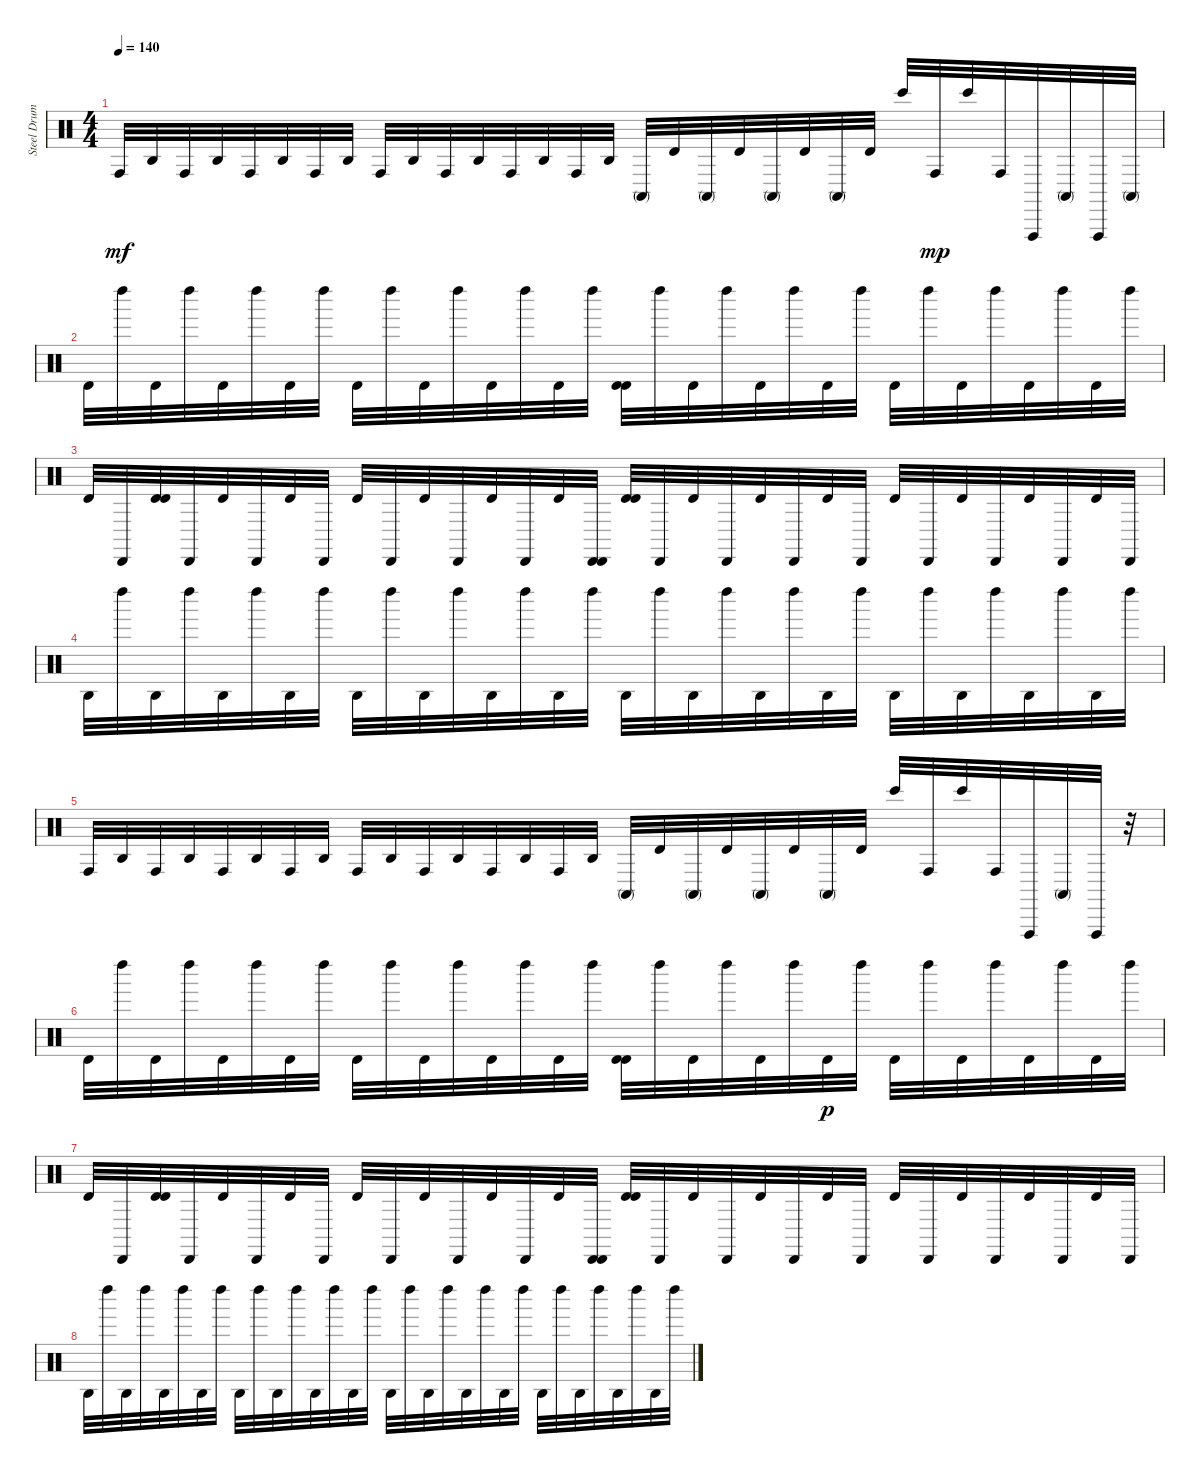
\track ("Steel Drums" "Steel Drum") {instrument percussion}
\staff {score}
\articulation defaults
\ts (4 4)
\tempo 140
\clef neutral
\ks c "Conga high (hit)".32{dy mf} "Agogo high (hit)".32 "Conga high (hit)".32 "Agogo high (hit)".32 "Conga high (hit)".32 "Agogo high (hit)".32 "Conga high (hit)".32 "Agogo high (hit)".32 "Conga high (hit)".32 "Agogo high (hit)".32 "Conga high (hit)".32 "Agogo high (hit)".32 "Conga high (hit)".32 "Agogo high (hit)".32 "Conga high (hit)".32 "Agogo high (hit)".32 "Conga high (mute)".32 "Timbale high (hit)".32 "Conga high (mute)".32 "Timbale high (hit)".32 "Conga high (mute)".32 "Timbale high (hit)".32 "Conga high (mute)".32 "Timbale high (hit)".32 "Bongo High (hit)".32 "Conga high (hit)".32{dy mp} "Bongo High (hit)".32 "Conga high (hit)".32 "Vibraslap (hit)".32 "Conga high (mute)".32 "Vibraslap (hit)".32 "Conga high (mute)".32
|
"Timbale high (hit)".32 "Left Maraca (hit)".32 "Timbale high (hit)".32 "Left Maraca (hit)".32 "Timbale high (hit)".32 "Left Maraca (hit)".32 "Timbale high (hit)".32 "Left Maraca (hit)".32 "Timbale high (hit)".32 "Left Maraca (hit)".32 "Timbale high (hit)".32 "Left Maraca (hit)".32 "Timbale high (hit)".32 "Left Maraca (hit)".32 "Timbale high (hit)".32 "Left Maraca (hit)".32 ("Timbale high (hit)" "Timbale high (hit)").32 "Left Maraca (hit)".32 "Timbale high (hit)".32 "Left Maraca (hit)".32 "Timbale high (hit)".32 "Left Maraca (hit)".32 "Timbale high (hit)".32 "Left Maraca (hit)".32 "Timbale high (hit)".32 "Left Maraca (hit)".32 "Timbale high (hit)".32 "Left Maraca (hit)".32 "Timbale high (hit)".32 "Left Maraca (hit)".32 "Timbale high (hit)".32 "Left Maraca (hit)".32 |
"Timbale high (hit)".32 "Cabasa (hit)".32 ("Timbale high (hit)" "Timbale high (hit)").32 "Cabasa (hit)".32 "Timbale high (hit)".32 "Cabasa (hit)".32 "Timbale high (hit)".32 "Cabasa (hit)".32 "Timbale high (hit)".32 "Cabasa (hit)".32 "Timbale high (hit)".32 "Cabasa (hit)".32 "Timbale high (hit)".32 "Cabasa (hit)".32 "Timbale high (hit)".32 ("Cabasa (hit)" "Cabasa (hit)").32 ("Timbale high (hit)" "Timbale high (hit)").32 "Cabasa (hit)".32 "Timbale high (hit)".32 "Cabasa (hit)".32 "Timbale high (hit)".32 "Cabasa (hit)".32 "Timbale high (hit)".32 "Cabasa (hit)".32 "Timbale high (hit)".32 "Cabasa (hit)".32 "Timbale high (hit)".32 "Cabasa (hit)".32 "Timbale high (hit)".32 "Cabasa (hit)".32 "Timbale high (hit)".32 "Cabasa (hit)".32 |
"Agogo high (hit)".32 "Left Maraca (hit)".32 "Agogo high (hit)".32 "Left Maraca (hit)".32 "Agogo high (hit)".32 "Left Maraca (hit)".32 "Agogo high (hit)".32 "Left Maraca (hit)".32 "Agogo high (hit)".32 "Left Maraca (hit)".32 "Agogo high (hit)".32 "Left Maraca (hit)".32 "Agogo high (hit)".32 "Left Maraca (hit)".32 "Agogo high (hit)".32 "Left Maraca (hit)".32 "Agogo high (hit)".32 "Left Maraca (hit)".32 "Agogo high (hit)".32 "Left Maraca (hit)".32 "Agogo high (hit)".32 "Left Maraca (hit)".32 "Agogo high (hit)".32 "Left Maraca (hit)".32 "Agogo high (hit)".32 "Left Maraca (hit)".32 "Agogo high (hit)".32 "Left Maraca (hit)".32 "Agogo high (hit)".32 "Left Maraca (hit)".32 "Agogo high (hit)".32 "Left Maraca (hit)".32 |
"Conga high (hit)".32 "Agogo high (hit)".32 "Conga high (hit)".32 "Agogo high (hit)".32 "Conga high (hit)".32 "Agogo high (hit)".32 "Conga high (hit)".32 "Agogo high (hit)".32 "Conga high (hit)".32 "Agogo high (hit)".32 "Conga high (hit)".32 "Agogo high (hit)".32 "Conga high (hit)".32 "Agogo high (hit)".32 "Conga high (hit)".32 "Agogo high (hit)".32 "Conga high (mute)".32 "Timbale high (hit)".32 "Conga high (mute)".32 "Timbale high (hit)".32 "Conga high (mute)".32 "Timbale high (hit)".32 "Conga high (mute)".32 "Timbale high (hit)".32 "Bongo High (hit)".32 "Conga high (hit)".32 "Bongo High (hit)".32 "Conga high (hit)".32 "Vibraslap (hit)".32 "Conga high (mute)".32 "Vibraslap (hit)".32 r.32 |
"Timbale high (hit)".32 "Left Maraca (hit)".32 "Timbale high (hit)".32 "Left Maraca (hit)".32 "Timbale high (hit)".32 "Left Maraca (hit)".32 "Timbale high (hit)".32 "Left Maraca (hit)".32 "Timbale high (hit)".32 "Left Maraca (hit)".32 "Timbale high (hit)".32 "Left Maraca (hit)".32 "Timbale high (hit)".32 "Left Maraca (hit)".32 "Timbale high (hit)".32 "Left Maraca (hit)".32 ("Timbale high (hit)" "Timbale high (hit)").32 "Left Maraca (hit)".32 "Timbale high (hit)".32 "Left Maraca (hit)".32 "Timbale high (hit)".32 "Left Maraca (hit)".32 "Timbale high (hit)".32{dy p} "Left Maraca (hit)".32 "Timbale high (hit)".32 "Left Maraca (hit)".32 "Timbale high (hit)".32 "Left Maraca (hit)".32 "Timbale high (hit)".32 "Left Maraca (hit)".32 "Timbale high (hit)".32 "Left Maraca (hit)".32 |
"Timbale high (hit)".32 "Cabasa (hit)".32 ("Timbale high (hit)" "Timbale high (hit)").32 "Cabasa (hit)".32 "Timbale high (hit)".32 "Cabasa (hit)".32 "Timbale high (hit)".32 "Cabasa (hit)".32 "Timbale high (hit)".32 "Cabasa (hit)".32 "Timbale high (hit)".32 "Cabasa (hit)".32 "Timbale high (hit)".32 "Cabasa (hit)".32 "Timbale high (hit)".32 ("Cabasa (hit)" "Cabasa (hit)").32 ("Timbale high (hit)" "Timbale high (hit)").32 "Cabasa (hit)".32 "Timbale high (hit)".32 "Cabasa (hit)".32 "Timbale high (hit)".32 "Cabasa (hit)".32 "Timbale high (hit)".32 "Cabasa (hit)".32 "Timbale high (hit)".32 "Cabasa (hit)".32 "Timbale high (hit)".32 "Cabasa (hit)".32 "Timbale high (hit)".32 "Cabasa (hit)".32 "Timbale high (hit)".32 "Cabasa (hit)".32 |
"Agogo high (hit)".32 "Left Maraca (hit)".32 "Agogo high (hit)".32 "Left Maraca (hit)".32 "Agogo high (hit)".32 "Left Maraca (hit)".32 "Agogo high (hit)".32 "Left Maraca (hit)".32 "Agogo high (hit)".32 "Left Maraca (hit)".32 "Agogo high (hit)".32 "Left Maraca (hit)".32 "Agogo high (hit)".32 "Left Maraca (hit)".32 "Agogo high (hit)".32 "Left Maraca (hit)".32 "Agogo high (hit)".32 "Left Maraca (hit)".32 "Agogo high (hit)".32 "Left Maraca (hit)".32 "Agogo high (hit)".32 "Left Maraca (hit)".32 "Agogo high (hit)".32 "Left Maraca (hit)".32 "Agogo high (hit)".32 "Left Maraca (hit)".32 "Agogo high (hit)".32 "Left Maraca (hit)".32 "Agogo high (hit)".32 "Left Maraca (hit)".32 "Agogo high (hit)".32 "Left Maraca (hit)".32
